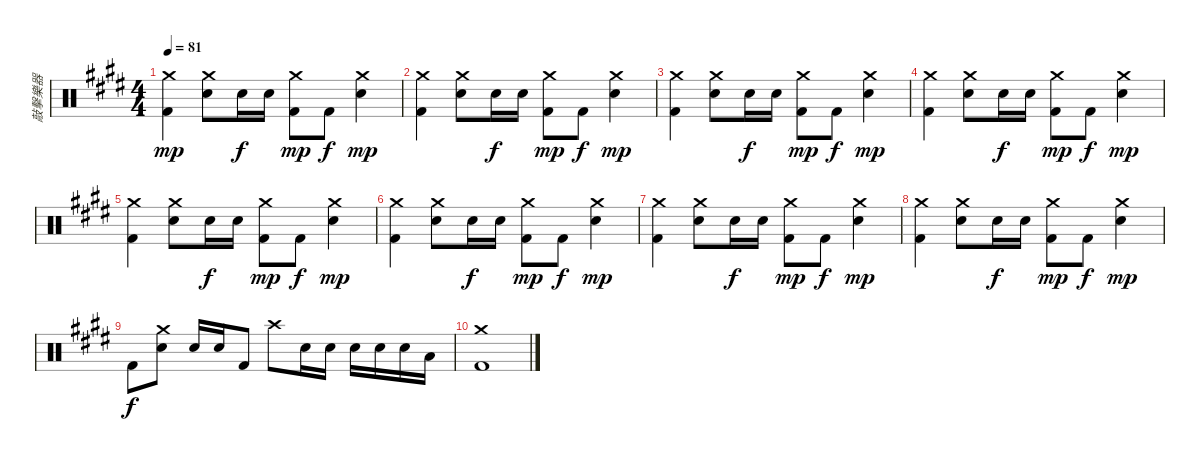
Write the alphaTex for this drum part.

\track ("敲擊樂器" "敲擊樂器") {instrument percussion}
\staff {score}
\articulation defaults
\ts (4 4)
\tempo 81
\clef neutral
\ks e
("Crash medium (hit)" "Kick (hit) 2").4{dy mp} ("Crash medium (hit)" "Electric Snare (hit)").8 "Snare (hit) 2".16{dy f} "Electric Snare (hit)".16 ("Crash medium (hit)" "Kick (hit) 2").8{dy mp} "Kick (hit) 2".8{dy f} ("Crash medium (hit)" "Electric Snare (hit)").4{dy mp} |
("Crash medium (hit)" "Kick (hit) 2").4 ("Crash medium (hit)" "Electric Snare (hit)").8 "Snare (hit) 2".16{dy f} "Electric Snare (hit)".16 ("Crash medium (hit)" "Kick (hit) 2").8{dy mp} "Kick (hit) 2".8{dy f} ("Crash medium (hit)" "Electric Snare (hit)").4{dy mp} |
("Crash medium (hit)" "Kick (hit) 2").4 ("Crash medium (hit)" "Electric Snare (hit)").8 "Snare (hit) 2".16{dy f} "Electric Snare (hit)".16 ("Crash medium (hit)" "Kick (hit) 2").8{dy mp} "Kick (hit) 2".8{dy f} ("Crash medium (hit)" "Electric Snare (hit)").4{dy mp} |
("Crash medium (hit)" "Kick (hit) 2").4 ("Crash medium (hit)" "Electric Snare (hit)").8 "Snare (hit) 2".16{dy f} "Electric Snare (hit)".16 ("Crash medium (hit)" "Kick (hit) 2").8{dy mp} "Kick (hit) 2".8{dy f} ("Crash medium (hit)" "Electric Snare (hit)").4{dy mp} |
("Crash medium (hit)" "Kick (hit) 2").4 ("Crash medium (hit)" "Electric Snare (hit)").8 "Snare (hit) 2".16{dy f} "Electric Snare (hit)".16 ("Crash medium (hit)" "Kick (hit) 2").8{dy mp} "Kick (hit) 2".8{dy f} ("Crash medium (hit)" "Electric Snare (hit)").4{dy mp} |
("Crash medium (hit)" "Kick (hit) 2").4 ("Crash medium (hit)" "Electric Snare (hit)").8 "Snare (hit) 2".16{dy f} "Electric Snare (hit)".16 ("Crash medium (hit)" "Kick (hit) 2").8{dy mp} "Kick (hit) 2".8{dy f} ("Crash medium (hit)" "Electric Snare (hit)").4{dy mp} |
("Crash medium (hit)" "Kick (hit) 2").4 ("Crash medium (hit)" "Electric Snare (hit)").8 "Snare (hit) 2".16{dy f} "Electric Snare (hit)".16 ("Crash medium (hit)" "Kick (hit) 2").8{dy mp} "Kick (hit) 2".8{dy f} ("Crash medium (hit)" "Electric Snare (hit)").4{dy mp} |
("Crash medium (hit)" "Kick (hit) 2").4 ("Crash medium (hit)" "Electric Snare (hit)").8 "Snare (hit) 2".16{dy f} "Electric Snare (hit)".16 ("Crash medium (hit)" "Kick (hit) 2").8{dy mp} "Kick (hit) 2".8{dy f} ("Crash medium (hit)" "Electric Snare (hit)").4{dy mp} |
"Kick (hit) 2".8{dy f} ("Crash medium (hit)" "Electric Snare (hit)").8 "Snare (hit) 2".16 "Electric Snare (hit)".16 "Kick (hit) 2".8 "Crash high (hit)".8 "Snare (hit) 2".16 "Electric Snare (hit)".16 "Electric Snare (hit)".16 "Electric Snare (hit)".16 "Electric Snare (hit)".16 "Low Floor Tom (hit)".16 |
("Crash medium (hit)" "Kick (hit) 2").1
